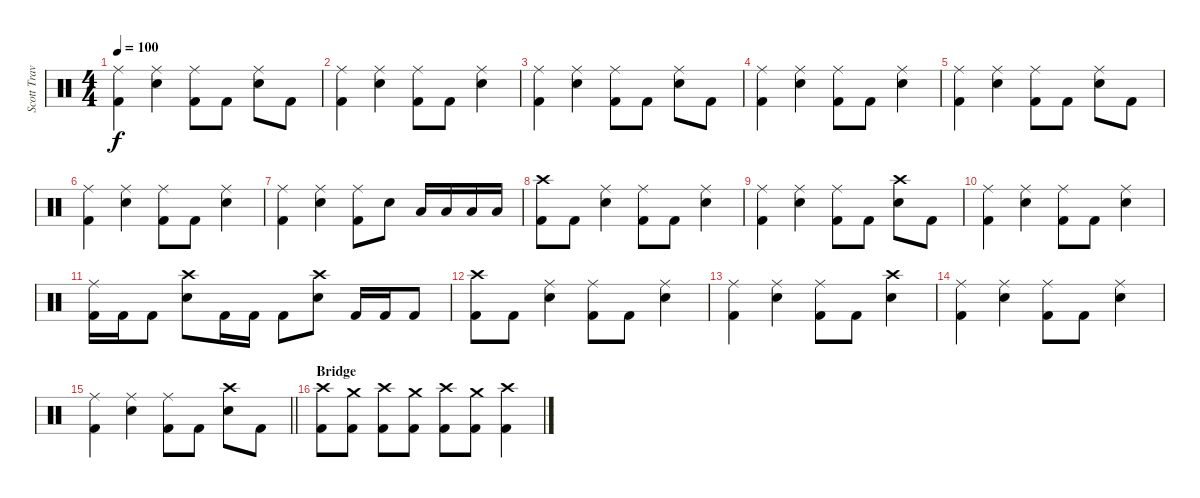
\track ("Scott Travis" "Scott Trav") {instrument percussion}
\staff {score}
\articulation defaults
\ts (4 4)
\tempo 100
\clef neutral
\ks c
("Ride (middle)" "Kick (hit) 2").4{dy f} ("Ride (middle)" "Snare (hit) 2").4 ("Ride (middle)" "Kick (hit) 2").8 "Kick (hit) 2".8 ("Ride (middle)" "Snare (hit) 2").8 "Kick (hit) 2".8 |
("Ride (middle)" "Kick (hit) 2").4 ("Ride (middle)" "Snare (hit) 2").4 ("Ride (middle)" "Kick (hit) 2").8 "Kick (hit) 2".8 ("Ride (middle)" "Snare (hit) 2").4 |
("Ride (middle)" "Kick (hit) 2").4 ("Ride (middle)" "Snare (hit) 2").4 ("Ride (middle)" "Kick (hit) 2").8 "Kick (hit) 2".8 ("Ride (middle)" "Snare (hit) 2").8 "Kick (hit) 2".8 |
("Ride (middle)" "Kick (hit) 2").4 ("Ride (middle)" "Snare (hit) 2").4 ("Ride (middle)" "Kick (hit) 2").8 "Kick (hit) 2".8 ("Ride (middle)" "Snare (hit) 2").4 |
("Ride (middle)" "Kick (hit) 2").4 ("Ride (middle)" "Snare (hit) 2").4 ("Ride (middle)" "Kick (hit) 2").8 "Kick (hit) 2".8 ("Ride (middle)" "Snare (hit) 2").8 "Kick (hit) 2".8 |
("Ride (middle)" "Kick (hit) 2").4 ("Ride (middle)" "Snare (hit) 2").4 ("Ride (middle)" "Kick (hit) 2").8 "Kick (hit) 2".8 ("Ride (middle)" "Snare (hit) 2").4 |
("Ride (middle)" "Kick (hit) 2").4 ("Ride (middle)" "Snare (hit) 2").4 ("Ride (middle)" "Kick (hit) 2").8 "Snare (hit) 2".8 "Low Tom (hit)".16 "Low Tom (hit)".16 "Low Floor Tom (hit)".16 "Low Floor Tom (hit)".16 |
("Crash high (hit)" "Kick (hit) 2").8 "Kick (hit) 2".8 ("Ride (middle)" "Snare (hit) 2").4 ("Ride (middle)" "Kick (hit) 2").8 "Kick (hit) 2".8 ("Ride (middle)" "Snare (hit) 2").4 |
("Ride (middle)" "Kick (hit) 2").4 ("Ride (middle)" "Snare (hit) 2").4 ("Ride (middle)" "Kick (hit) 2").8 "Kick (hit) 2".8 ("Crash high (hit)" "Snare (hit) 2").8 "Kick (hit) 2".8 |
("Ride (middle)" "Kick (hit) 2").4 ("Ride (middle)" "Snare (hit) 2").4 ("Ride (middle)" "Kick (hit) 2").8 "Kick (hit) 2".8 ("Ride (middle)" "Snare (hit) 2").4 |
("Ride (middle)" "Kick (hit) 2").16 "Kick (hit) 2".16 "Kick (hit) 2".8 ("Crash high (hit)" "Snare (hit) 2").8 "Kick (hit) 2".16 "Kick (hit) 2".16 "Kick (hit) 2".8 ("Crash high (hit)" "Snare (hit) 2").8 "Kick (hit) 2".16 "Kick (hit) 2".16 "Kick (hit) 2".8 |
("Crash high (hit)" "Kick (hit) 2").8 "Kick (hit) 2".8 ("Ride (middle)" "Snare (hit) 2").4 ("Ride (middle)" "Kick (hit) 2").8 "Kick (hit) 2".8 ("Ride (middle)" "Snare (hit) 2").4 |
("Ride (middle)" "Kick (hit) 2").4 ("Ride (middle)" "Snare (hit) 2").4 ("Ride (middle)" "Kick (hit) 2").8 "Kick (hit) 2".8 ("Crash high (hit)" "Snare (hit) 2").4 |
("Ride (middle)" "Kick (hit) 2").4 ("Ride (middle)" "Snare (hit) 2").4 ("Ride (middle)" "Kick (hit) 2").8 "Kick (hit) 2".8 ("Ride (middle)" "Snare (hit) 2").4 |
\barLineRight lightlight
("Ride (middle)" "Kick (hit) 2").4 ("Ride (middle)" "Snare (hit) 2").4 ("Ride (middle)" "Kick (hit) 2").8 "Kick (hit) 2".8 ("Crash high (hit)" "Snare (hit) 2").8 "Kick (hit) 2".8 |
\section ("" "Bridge")
("Crash high (hit)" "Kick (hit) 2").8 ("Crash medium (hit)" "Kick (hit) 2").8 ("Crash high (hit)" "Kick (hit) 2").8 ("Crash medium (hit)" "Kick (hit) 2").8 ("Crash high (hit)" "Kick (hit) 2").8 ("Crash medium (hit)" "Kick (hit) 2").8 ("Crash high (hit)" "Kick (hit) 2").4
